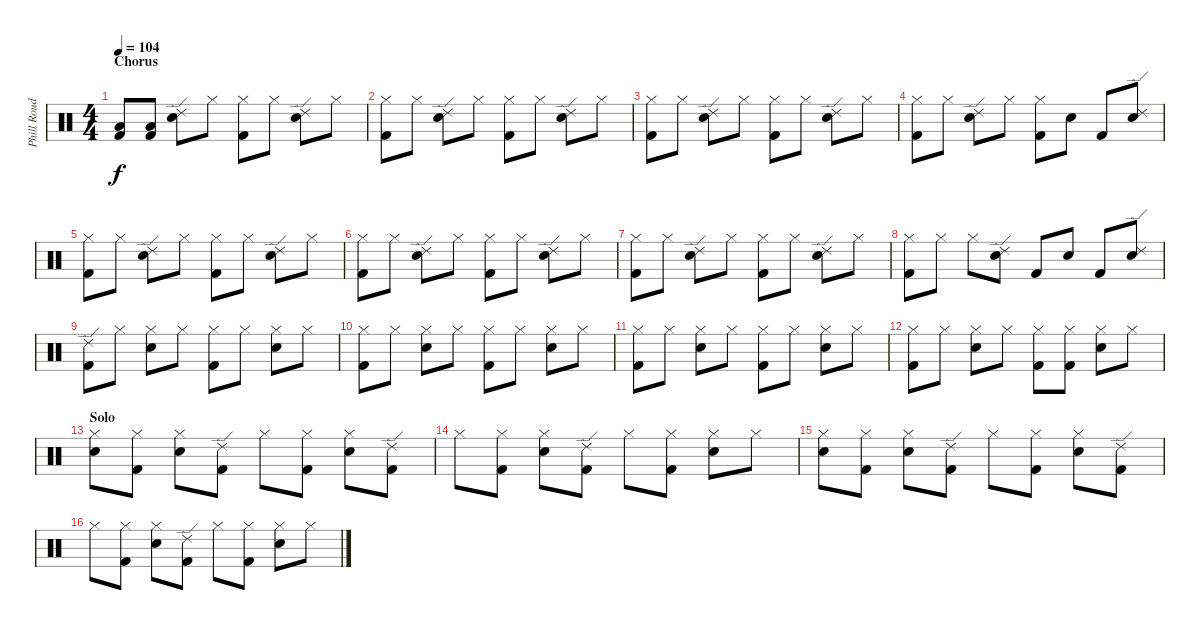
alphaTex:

\track ("Phill Roud" "Phill Roud") {instrument percussion}
\staff {score}
\articulation defaults
\ts (4 4)
\section ("" "Chorus")
\tempo 104
\clef neutral
\ks c
("Kick (hit) 2" "Low Floor Tom (hit)").8{dy f} ("Kick (hit) 2" "Low Floor Tom (hit)").8 ("Snare (hit) 2" "Ride (edge) 2").8 "Hi-Hat (closed)".8 ("Hi-Hat (closed)" "Kick (hit) 2").8 "Hi-Hat (closed)".8 ("Snare (hit) 2" "Ride (edge) 2").8 "Hi-Hat (closed)".8 |
("Hi-Hat (closed)" "Kick (hit) 2").8 "Hi-Hat (closed)".8 ("Snare (hit) 2" "Ride (edge) 2").8 "Hi-Hat (closed)".8 ("Hi-Hat (closed)" "Kick (hit) 2").8 "Hi-Hat (closed)".8 ("Snare (hit) 2" "Ride (edge) 2").8 "Hi-Hat (closed)".8 |
("Hi-Hat (closed)" "Kick (hit) 2").8 "Hi-Hat (closed)".8 ("Snare (hit) 2" "Ride (edge) 2").8 "Hi-Hat (closed)".8 ("Hi-Hat (closed)" "Kick (hit) 2").8 "Hi-Hat (closed)".8 ("Snare (hit) 2" "Ride (edge) 2").8 "Hi-Hat (closed)".8 |
("Hi-Hat (closed)" "Kick (hit) 2").8 "Hi-Hat (closed)".8 ("Snare (hit) 2" "Ride (edge) 2").8 "Hi-Hat (closed)".8 ("Hi-Hat (closed)" "Kick (hit) 2").8 "Snare (hit) 2".8 "Kick (hit) 2".8 ("Snare (hit) 2" "Ride (edge) 2").8 |
("Hi-Hat (closed)" "Kick (hit) 2").8 "Hi-Hat (closed)".8 ("Snare (hit) 2" "Ride (edge) 2").8 "Hi-Hat (closed)".8 ("Hi-Hat (closed)" "Kick (hit) 2").8 "Hi-Hat (closed)".8 ("Snare (hit) 2" "Ride (edge) 2").8 "Hi-Hat (closed)".8 |
("Hi-Hat (closed)" "Kick (hit) 2").8 "Hi-Hat (closed)".8 ("Snare (hit) 2" "Ride (edge) 2").8 "Hi-Hat (closed)".8 ("Hi-Hat (closed)" "Kick (hit) 2").8 "Hi-Hat (closed)".8 ("Snare (hit) 2" "Ride (edge) 2").8 "Hi-Hat (closed)".8 |
("Hi-Hat (closed)" "Kick (hit) 2").8 "Hi-Hat (closed)".8 ("Snare (hit) 2" "Ride (edge) 2").8 "Hi-Hat (closed)".8 ("Hi-Hat (closed)" "Kick (hit) 2").8 "Hi-Hat (closed)".8 ("Snare (hit) 2" "Ride (edge) 2").8 "Hi-Hat (closed)".8 |
("Hi-Hat (closed)" "Kick (hit) 2").8 "Hi-Hat (closed)".8 "Hi-Hat (closed)".8 ("Snare (hit) 2" "Ride (edge) 2").8 "Kick (hit) 2".8 "Snare (hit) 2".8 "Kick (hit) 2".8 ("Snare (hit) 2" "Ride (edge) 2").8 |
("Kick (hit) 2" "Ride (edge) 2").8 "Hi-Hat (closed)".8 ("Hi-Hat (closed)" "Snare (hit) 2").8 "Hi-Hat (closed)".8 ("Hi-Hat (closed)" "Kick (hit) 2").8 "Hi-Hat (closed)".8 ("Hi-Hat (closed)" "Snare (hit) 2").8 "Hi-Hat (closed)".8 |
("Hi-Hat (closed)" "Kick (hit) 2").8 "Hi-Hat (closed)".8 ("Hi-Hat (closed)" "Snare (hit) 2").8 "Hi-Hat (closed)".8 ("Hi-Hat (closed)" "Kick (hit) 2").8 "Hi-Hat (closed)".8 ("Hi-Hat (closed)" "Snare (hit) 2").8 "Hi-Hat (closed)".8 |
("Hi-Hat (closed)" "Kick (hit) 2").8 "Hi-Hat (closed)".8 ("Hi-Hat (closed)" "Snare (hit) 2").8 "Hi-Hat (closed)".8 ("Hi-Hat (closed)" "Kick (hit) 2").8 "Hi-Hat (closed)".8 ("Hi-Hat (closed)" "Snare (hit) 2").8 "Hi-Hat (closed)".8 |
("Hi-Hat (closed)" "Kick (hit) 2").8 "Hi-Hat (closed)".8 ("Hi-Hat (closed)" "Snare (hit) 2").8 "Hi-Hat (closed)".8 ("Hi-Hat (closed)" "Kick (hit) 2").8 ("Hi-Hat (closed)" "Kick (hit) 2").8 ("Hi-Hat (closed)" "Snare (hit) 2").8 "Hi-Hat (closed)".8 |
\section ("" "Solo")
("Hi-Hat (closed)" "Snare (hit) 2").8 ("Hi-Hat (closed)" "Kick (hit) 2").8 ("Hi-Hat (closed)" "Snare (hit) 2").8 ("Kick (hit) 2" "Ride (edge) 2").8 "Hi-Hat (closed)".8 ("Hi-Hat (closed)" "Kick (hit) 2").8 ("Hi-Hat (closed)" "Snare (hit) 2").8 ("Kick (hit) 2" "Ride (edge) 2").8 |
"Hi-Hat (closed)".8 ("Hi-Hat (closed)" "Kick (hit) 2").8 ("Hi-Hat (closed)" "Snare (hit) 2").8 ("Kick (hit) 2" "Ride (edge) 2").8 "Hi-Hat (closed)".8 ("Hi-Hat (closed)" "Kick (hit) 2").8 ("Hi-Hat (closed)" "Snare (hit) 2").8 "Hi-Hat (closed)".8 |
("Hi-Hat (closed)" "Snare (hit) 2").8 ("Hi-Hat (closed)" "Kick (hit) 2").8 ("Hi-Hat (closed)" "Snare (hit) 2").8 ("Kick (hit) 2" "Ride (edge) 2").8 "Hi-Hat (closed)".8 ("Hi-Hat (closed)" "Kick (hit) 2").8 ("Hi-Hat (closed)" "Snare (hit) 2").8 ("Kick (hit) 2" "Ride (edge) 2").8 |
"Hi-Hat (closed)".8 ("Hi-Hat (closed)" "Kick (hit) 2").8 ("Hi-Hat (closed)" "Snare (hit) 2").8 ("Kick (hit) 2" "Ride (edge) 2").8 "Hi-Hat (closed)".8 ("Hi-Hat (closed)" "Kick (hit) 2").8 ("Hi-Hat (closed)" "Snare (hit) 2").8 "Hi-Hat (closed)".8
